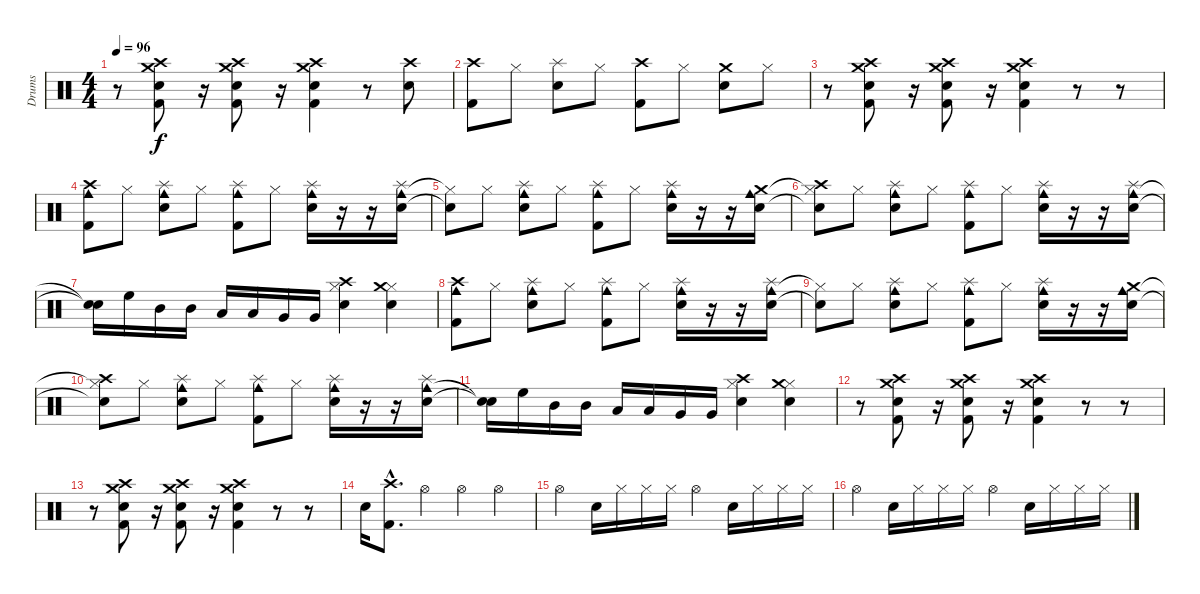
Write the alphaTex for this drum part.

\track ("Drums" "Drums") {instrument percussion}
\staff {score}
\articulation defaults
\ts (4 4)
\tempo 96
\clef neutral
\ks c
r.8{dy f} ("Snare (hit) 2" "Kick (hit) 2" "Crash high (hit)" "Crash medium (hit)").8 r.16 ("Snare (hit) 2" "Kick (hit) 2" "Crash high (hit)" "Crash medium (hit)").8 r.16 ("Snare (hit) 2" "Kick (hit) 2" "Crash high (hit)" "Crash medium (hit)").4 r.8 ("Snare (hit) 2" "Crash high (hit)").8 |
("Kick (hit) 2" "Crash high (hit)").8 "Hi-Hat (closed)".8 ("Snare (hit) 2" "Splash (hit)").8 "Hi-Hat (closed)".8 ("Kick (hit) 2" "Crash high (hit)").8 "Hi-Hat (closed)".8 ("Snare (hit) 2" "Crash medium (hit)").8 "Hi-Hat (closed)".8 |
r.8 ("Snare (hit) 2" "Kick (hit) 2" "Crash high (hit)" "Crash medium (hit)").8 r.16 ("Snare (hit) 2" "Kick (hit) 2" "Crash high (hit)" "Crash medium (hit)").8 r.16 ("Snare (hit) 2" "Kick (hit) 2" "Crash high (hit)" "Crash medium (hit)").4 r.8 r.8 |
("Kick (hit) 2" "Cowbell medium (hit)" "Crash high (hit)").8 "Hi-Hat (closed)".8 ("Snare (hit) 2" "Cowbell medium (hit)" "Splash (hit)").8 "Hi-Hat (closed)".8 ("Kick (hit) 2" "Cowbell medium (hit)" "Splash (hit)").8 "Hi-Hat (closed)".8 ("Snare (hit) 2" "Cowbell medium (hit)" "Splash (hit)").16 r.16 r.16 ("Snare (hit) 2" "Cowbell medium (hit)" "Splash (hit)").16 |
("Snare (hit) 2"{t} "Hi-Hat (closed)"{t}).8 "Hi-Hat (closed)".8 ("Snare (hit) 2" "Cowbell medium (hit)" "Splash (hit)").8 "Hi-Hat (closed)".8 ("Kick (hit) 2" "Cowbell medium (hit)" "Splash (hit)").8 "Hi-Hat (closed)".8 ("Snare (hit) 2" "Cowbell medium (hit)" "Splash (hit)").16 r.16 r.16 ("Snare (hit) 2" "Cowbell medium (hit)" "Crash medium (hit)").16 |
("Snare (hit) 2"{t} "Hi-Hat (closed)"{t} "Crash high (hit)").8 "Hi-Hat (closed)".8 ("Snare (hit) 2" "Cowbell medium (hit)" "Splash (hit)").8 "Hi-Hat (closed)".8 ("Kick (hit) 2" "Cowbell medium (hit)" "Splash (hit)").8 "Hi-Hat (closed)".8 ("Snare (hit) 2" "Cowbell medium (hit)" "Splash (hit)").16 r.16 r.16 ("Snare (hit) 2" "Cowbell medium (hit)" "Splash (hit)").16 |
("Snare (hit)"{t} "Snare (hit)"{t}).16 "High Floor Tom (hit)".16 "Mid Tom (hit)".16 "Mid Tom (hit)".16 "Low Tom (hit)".16 "Low Tom (hit)".16 "Very Low Tom (hit)".16 "Very Low Tom (hit)".16 ("Snare (hit) 2" "Hi-Hat (closed)" "Crash high (hit)").4 ("Snare (hit) 2" "Hi-Hat (closed)" "Crash medium (hit)").4 |
("Kick (hit) 2" "Cowbell medium (hit)" "Crash high (hit)").8 "Hi-Hat (closed)".8 ("Snare (hit) 2" "Cowbell medium (hit)" "Splash (hit)").8 "Hi-Hat (closed)".8 ("Kick (hit) 2" "Cowbell medium (hit)" "Splash (hit)").8 "Hi-Hat (closed)".8 ("Snare (hit) 2" "Cowbell medium (hit)" "Splash (hit)").16 r.16 r.16 ("Snare (hit) 2" "Cowbell medium (hit)" "Splash (hit)").16 |
("Snare (hit) 2"{t} "Hi-Hat (closed)"{t}).8 "Hi-Hat (closed)".8 ("Snare (hit) 2" "Cowbell medium (hit)" "Splash (hit)").8 "Hi-Hat (closed)".8 ("Kick (hit) 2" "Cowbell medium (hit)" "Splash (hit)").8 "Hi-Hat (closed)".8 ("Snare (hit) 2" "Cowbell medium (hit)" "Splash (hit)").16 r.16 r.16 ("Snare (hit) 2" "Cowbell medium (hit)" "Crash medium (hit)").16 |
("Snare (hit) 2"{t} "Hi-Hat (closed)"{t} "Crash high (hit)").8 "Hi-Hat (closed)".8 ("Snare (hit) 2" "Cowbell medium (hit)" "Splash (hit)").8 "Hi-Hat (closed)".8 ("Kick (hit) 2" "Cowbell medium (hit)" "Splash (hit)").8 "Hi-Hat (closed)".8 ("Snare (hit) 2" "Cowbell medium (hit)" "Splash (hit)").16 r.16 r.16 ("Snare (hit) 2" "Cowbell medium (hit)" "Splash (hit)").16 |
("Snare (hit)"{t} "Snare (hit)"{t}).16 "High Floor Tom (hit)".16 "Mid Tom (hit)".16 "Mid Tom (hit)".16 "Low Tom (hit)".16 "Low Tom (hit)".16 "Very Low Tom (hit)".16 "Very Low Tom (hit)".16 ("Snare (hit) 2" "Hi-Hat (closed)" "Crash high (hit)").4 ("Snare (hit) 2" "Hi-Hat (closed)" "Crash medium (hit)").4 |
r.8 ("Snare (hit) 2" "Kick (hit) 2" "Crash high (hit)" "Crash medium (hit)").8 r.16 ("Snare (hit) 2" "Kick (hit) 2" "Crash high (hit)" "Crash medium (hit)").8 r.16 ("Snare (hit) 2" "Kick (hit) 2" "Crash high (hit)" "Crash medium (hit)").4 r.8 r.8 |
r.8 ("Snare (hit) 2" "Kick (hit) 2" "Crash high (hit)" "Crash medium (hit)").8 r.16 ("Snare (hit) 2" "Kick (hit) 2" "Crash high (hit)" "Crash medium (hit)").8 r.16 ("Snare (hit) 2" "Kick (hit) 2" "Crash high (hit)" "Crash medium (hit)").4 r.8 r.8 |
"Snare (hit) 2".16 ("Kick (hit) 2"{hac} "Crash high (hit)"{hac}).8{d} "Hi-Hat (open)".4 "Hi-Hat (open)".4 "Hi-Hat (open)".4 |
"Hi-Hat (open)".4 "Snare (hit) 2".16 "Hi-Hat (closed)".16 "Hi-Hat (closed)".16 "Hi-Hat (closed)".16 "Hi-Hat (open)".4 "Snare (hit) 2".16 "Hi-Hat (closed)".16 "Hi-Hat (closed)".16 "Hi-Hat (closed)".16 |
"Hi-Hat (open)".4 "Snare (hit) 2".16 "Hi-Hat (closed)".16 "Hi-Hat (closed)".16 "Hi-Hat (closed)".16 "Hi-Hat (open)".4 "Snare (hit) 2".16 "Hi-Hat (closed)".16 "Hi-Hat (closed)".16 "Hi-Hat (closed)".16
